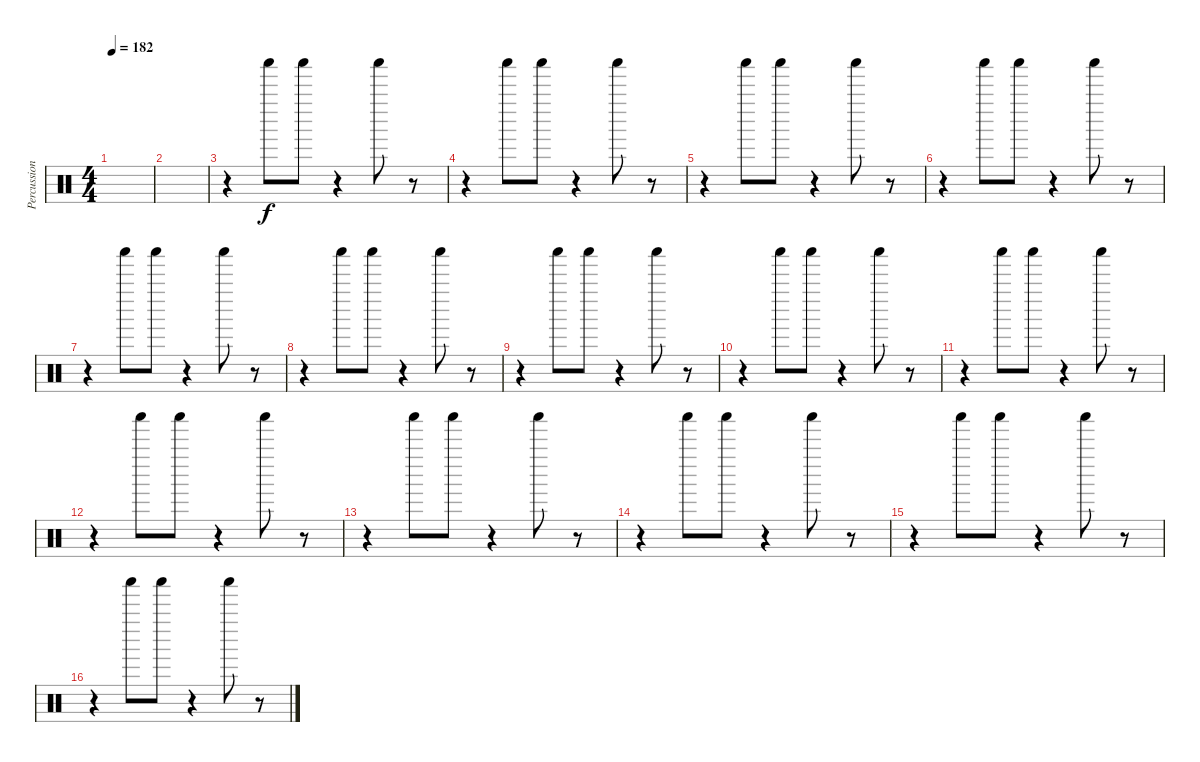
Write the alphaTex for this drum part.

\track ("Percussion2" "Percussion") {instrument percussion}
\staff {score}
\articulation defaults
\ts (4 4)
\tempo 182
\clef neutral
\ks c
|
|
r.4 "Shaker (hit)".8 "Shaker (hit)".8 r.4 "Shaker (hit)".8 r.8 |
r.4 "Shaker (hit)".8 "Shaker (hit)".8 r.4 "Shaker (hit)".8 r.8 |
r.4 "Shaker (hit)".8 "Shaker (hit)".8 r.4 "Shaker (hit)".8 r.8 |
r.4 "Shaker (hit)".8 "Shaker (hit)".8 r.4 "Shaker (hit)".8 r.8 |
r.4 "Shaker (hit)".8 "Shaker (hit)".8 r.4 "Shaker (hit)".8 r.8 |
r.4 "Shaker (hit)".8 "Shaker (hit)".8 r.4 "Shaker (hit)".8 r.8 |
r.4 "Shaker (hit)".8 "Shaker (hit)".8 r.4 "Shaker (hit)".8 r.8 |
r.4 "Shaker (hit)".8 "Shaker (hit)".8 r.4 "Shaker (hit)".8 r.8 |
r.4 "Shaker (hit)".8 "Shaker (hit)".8 r.4 "Shaker (hit)".8 r.8 |
r.4 "Shaker (hit)".8 "Shaker (hit)".8 r.4 "Shaker (hit)".8 r.8 |
r.4 "Shaker (hit)".8 "Shaker (hit)".8 r.4 "Shaker (hit)".8 r.8 |
r.4 "Shaker (hit)".8 "Shaker (hit)".8 r.4 "Shaker (hit)".8 r.8 |
r.4 "Shaker (hit)".8 "Shaker (hit)".8 r.4 "Shaker (hit)".8 r.8 |
r.4 "Shaker (hit)".8 "Shaker (hit)".8 r.4 "Shaker (hit)".8 r.8
